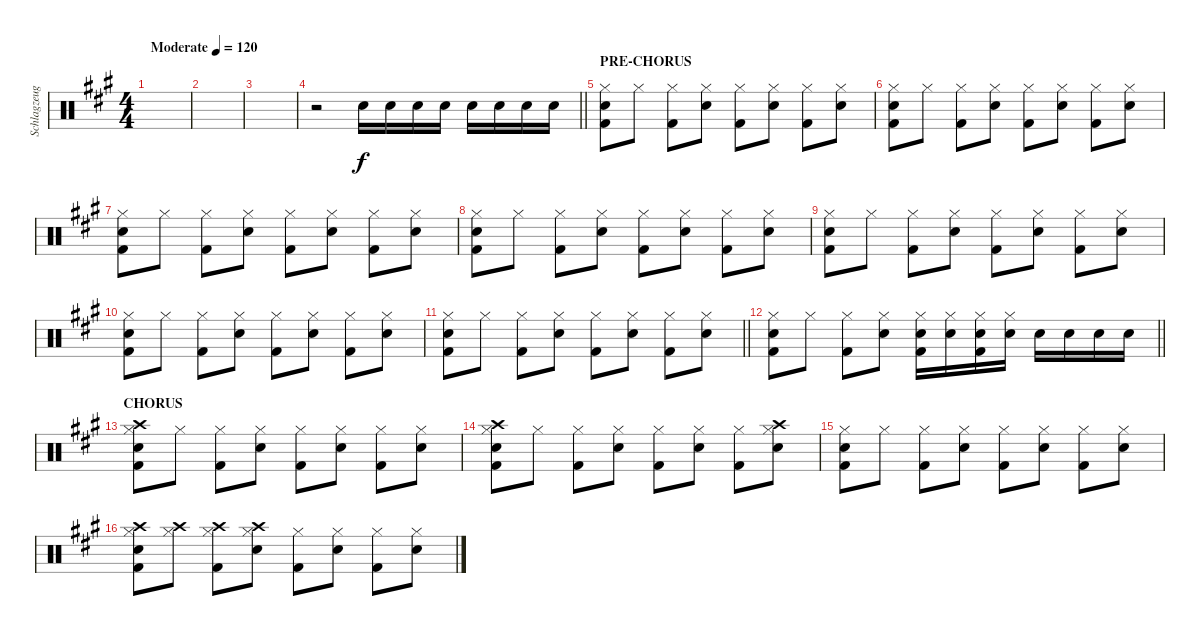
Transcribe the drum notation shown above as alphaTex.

\track ("Schlagzeug" "Schlagzeug") {instrument percussion}
\staff {score}
\articulation defaults
\ts (4 4)
\tempo (120 "Moderate")
\clef neutral
\ks a
|
|
|
\barLineRight lightlight
r.2 "Snare (hit) 2".16 "Snare (hit) 2".16 "Snare (hit) 2".16 "Snare (hit) 2".16 "Snare (hit) 2".16 "Snare (hit) 2".16 "Snare (hit) 2".16 "Snare (hit) 2".16 |
\section ("" "PRE-CHORUS")
("Hi-Hat (closed)" "Snare (hit) 2" "Kick (hit) 2").8 "Hi-Hat (closed)".8 ("Hi-Hat (closed)" "Kick (hit) 2").8 ("Hi-Hat (closed)" "Snare (hit) 2").8 ("Hi-Hat (closed)" "Kick (hit) 2").8 ("Hi-Hat (closed)" "Snare (hit) 2").8 ("Hi-Hat (closed)" "Kick (hit) 2").8 ("Hi-Hat (closed)" "Snare (hit) 2").8 |
("Hi-Hat (closed)" "Snare (hit) 2" "Kick (hit) 2").8 "Hi-Hat (closed)".8 ("Hi-Hat (closed)" "Kick (hit) 2").8 ("Hi-Hat (closed)" "Snare (hit) 2").8 ("Hi-Hat (closed)" "Kick (hit) 2").8 ("Hi-Hat (closed)" "Snare (hit) 2").8 ("Hi-Hat (closed)" "Kick (hit) 2").8 ("Hi-Hat (closed)" "Snare (hit) 2").8 |
("Hi-Hat (closed)" "Snare (hit) 2" "Kick (hit) 2").8 "Hi-Hat (closed)".8 ("Hi-Hat (closed)" "Kick (hit) 2").8 ("Hi-Hat (closed)" "Snare (hit) 2").8 ("Hi-Hat (closed)" "Kick (hit) 2").8 ("Hi-Hat (closed)" "Snare (hit) 2").8 ("Hi-Hat (closed)" "Kick (hit) 2").8 ("Hi-Hat (closed)" "Snare (hit) 2").8 |
("Hi-Hat (closed)" "Snare (hit) 2" "Kick (hit) 2").8 "Hi-Hat (closed)".8 ("Hi-Hat (closed)" "Kick (hit) 2").8 ("Hi-Hat (closed)" "Snare (hit) 2").8 ("Hi-Hat (closed)" "Kick (hit) 2").8 ("Hi-Hat (closed)" "Snare (hit) 2").8 ("Hi-Hat (closed)" "Kick (hit) 2").8 ("Hi-Hat (closed)" "Snare (hit) 2").8 |
("Hi-Hat (closed)" "Snare (hit) 2" "Kick (hit) 2").8 "Hi-Hat (closed)".8 ("Hi-Hat (closed)" "Kick (hit) 2").8 ("Hi-Hat (closed)" "Snare (hit) 2").8 ("Hi-Hat (closed)" "Kick (hit) 2").8 ("Hi-Hat (closed)" "Snare (hit) 2").8 ("Hi-Hat (closed)" "Kick (hit) 2").8 ("Hi-Hat (closed)" "Snare (hit) 2").8 |
("Hi-Hat (closed)" "Snare (hit) 2" "Kick (hit) 2").8 "Hi-Hat (closed)".8 ("Hi-Hat (closed)" "Kick (hit) 2").8 ("Hi-Hat (closed)" "Snare (hit) 2").8 ("Hi-Hat (closed)" "Kick (hit) 2").8 ("Hi-Hat (closed)" "Snare (hit) 2").8 ("Hi-Hat (closed)" "Kick (hit) 2").8 ("Hi-Hat (closed)" "Snare (hit) 2").8 |
\barLineRight lightlight
("Hi-Hat (closed)" "Snare (hit) 2" "Kick (hit) 2").8 "Hi-Hat (closed)".8 ("Hi-Hat (closed)" "Kick (hit) 2").8 ("Hi-Hat (closed)" "Snare (hit) 2").8 ("Hi-Hat (closed)" "Kick (hit) 2").8 ("Hi-Hat (closed)" "Snare (hit) 2").8 ("Hi-Hat (closed)" "Kick (hit) 2").8 ("Hi-Hat (closed)" "Snare (hit) 2").8 |
\barLineRight lightlight
("Hi-Hat (closed)" "Snare (hit) 2" "Kick (hit) 2").8 "Hi-Hat (closed)".8 ("Hi-Hat (closed)" "Kick (hit) 2").8 ("Hi-Hat (closed)" "Snare (hit) 2").8 ("Hi-Hat (closed)" "Snare (hit) 2" "Kick (hit) 2").16 ("Hi-Hat (closed)" "Snare (hit) 2").16 ("Hi-Hat (closed)" "Snare (hit) 2" "Kick (hit) 2").16 ("Hi-Hat (closed)" "Snare (hit) 2").16 "Snare (hit) 2".16 "Snare (hit) 2".16 "Snare (hit) 2".16 "Snare (hit) 2".16 |
\section ("" "CHORUS")
("Hi-Hat (closed)" "Crash high (hit)" "Snare (hit) 2" "Kick (hit) 2").8 "Hi-Hat (closed)".8 ("Hi-Hat (closed)" "Kick (hit) 2").8 ("Hi-Hat (closed)" "Snare (hit) 2").8 ("Hi-Hat (closed)" "Kick (hit) 2").8 ("Hi-Hat (closed)" "Snare (hit) 2").8 ("Hi-Hat (closed)" "Kick (hit) 2").8 ("Hi-Hat (closed)" "Snare (hit) 2").8 |
("Hi-Hat (closed)" "Crash high (hit)" "Snare (hit) 2" "Kick (hit) 2").8 "Hi-Hat (closed)".8 ("Hi-Hat (closed)" "Kick (hit) 2").8 ("Hi-Hat (closed)" "Snare (hit) 2").8 ("Hi-Hat (closed)" "Kick (hit) 2").8 ("Hi-Hat (closed)" "Snare (hit) 2").8 ("Hi-Hat (closed)" "Kick (hit) 2").8 ("Hi-Hat (closed)" "Crash high (hit)" "Snare (hit) 2").8 |
("Hi-Hat (closed)" "Snare (hit) 2" "Kick (hit) 2").8 "Hi-Hat (closed)".8 ("Hi-Hat (closed)" "Kick (hit) 2").8 ("Hi-Hat (closed)" "Snare (hit) 2").8 ("Hi-Hat (closed)" "Kick (hit) 2").8 ("Hi-Hat (closed)" "Snare (hit) 2").8 ("Hi-Hat (closed)" "Kick (hit) 2").8 ("Hi-Hat (closed)" "Snare (hit) 2").8 |
("Hi-Hat (closed)" "Crash high (hit)" "Snare (hit) 2" "Kick (hit) 2").8 ("Hi-Hat (closed)" "Crash high (hit)").8 ("Hi-Hat (closed)" "Crash high (hit)" "Kick (hit) 2").8 ("Hi-Hat (closed)" "Crash high (hit)" "Snare (hit) 2").8 ("Hi-Hat (closed)" "Kick (hit) 2").8 ("Hi-Hat (closed)" "Snare (hit) 2").8 ("Hi-Hat (closed)" "Kick (hit) 2").8 ("Hi-Hat (closed)" "Snare (hit) 2").8
